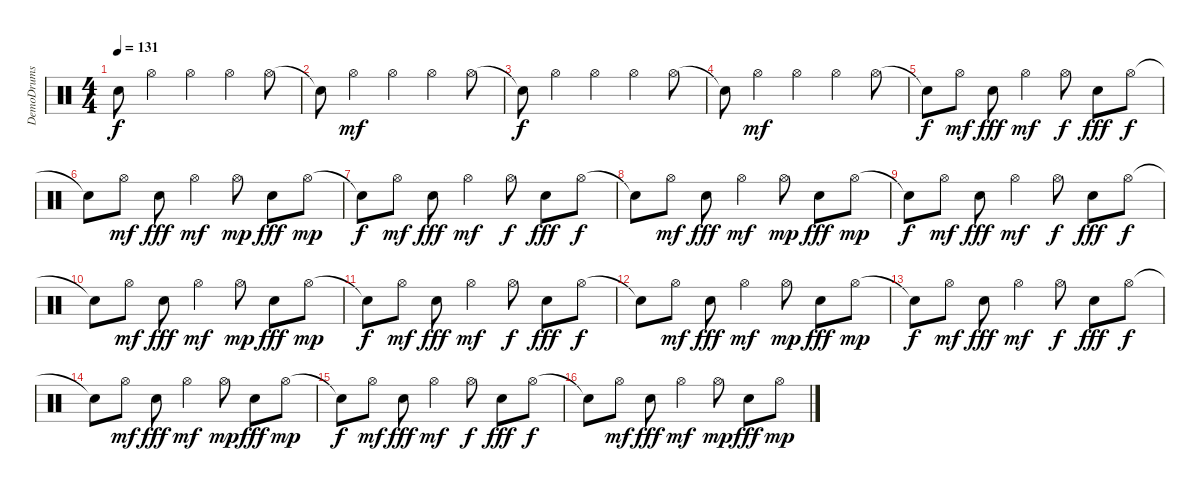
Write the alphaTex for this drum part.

\track ("DemoDrums" "DemoDrums") {instrument percussion}
\staff {score}
\articulation defaults
\ts (4 4)
\tempo 131
\clef neutral
\ks c "Snare (hit)"{t}.8{dy f} "Hi-Hat (open)".4 "Hi-Hat (open)".4 "Hi-Hat (open)".4 "Hi-Hat (open)".8
|
"Snare (hit)"{t}.8 "Hi-Hat (open)".4{dy mf} "Hi-Hat (open)".4 "Hi-Hat (open)".4 "Hi-Hat (open)".8 |
"Snare (hit)"{t}.8{dy f} "Hi-Hat (open)".4 "Hi-Hat (open)".4 "Hi-Hat (open)".4 "Hi-Hat (open)".8 |
"Snare (hit)"{t}.8 "Hi-Hat (open)".4{dy mf} "Hi-Hat (open)".4 "Hi-Hat (open)".4 "Hi-Hat (open)".8 |
"Snare (hit)"{t}.8{dy f} "Hi-Hat (open)".8{dy mf} "Electric Snare (hit)".8{dy fff} "Hi-Hat (open)".4{dy mf} "Hi-Hat (open)".8{dy f} "Electric Snare (hit)".8{dy fff} "Hi-Hat (open)".8{dy f} |
"Snare (hit)"{t}.8 "Hi-Hat (open)".8{dy mf} "Electric Snare (hit)".8{dy fff} "Hi-Hat (open)".4{dy mf} "Hi-Hat (open)".8{dy mp} "Electric Snare (hit)".8{dy fff} "Hi-Hat (open)".8{dy mp} |
"Snare (hit)"{t}.8{dy f} "Hi-Hat (open)".8{dy mf} "Electric Snare (hit)".8{dy fff} "Hi-Hat (open)".4{dy mf} "Hi-Hat (open)".8{dy f} "Electric Snare (hit)".8{dy fff} "Hi-Hat (open)".8{dy f} |
"Snare (hit)"{t}.8 "Hi-Hat (open)".8{dy mf} "Electric Snare (hit)".8{dy fff} "Hi-Hat (open)".4{dy mf} "Hi-Hat (open)".8{dy mp} "Electric Snare (hit)".8{dy fff} "Hi-Hat (open)".8{dy mp} |
"Snare (hit)"{t}.8{dy f} "Hi-Hat (open)".8{dy mf} "Electric Snare (hit)".8{dy fff} "Hi-Hat (open)".4{dy mf} "Hi-Hat (open)".8{dy f} "Electric Snare (hit)".8{dy fff} "Hi-Hat (open)".8{dy f} |
"Snare (hit)"{t}.8 "Hi-Hat (open)".8{dy mf} "Electric Snare (hit)".8{dy fff} "Hi-Hat (open)".4{dy mf} "Hi-Hat (open)".8{dy mp} "Electric Snare (hit)".8{dy fff} "Hi-Hat (open)".8{dy mp} |
"Snare (hit)"{t}.8{dy f} "Hi-Hat (open)".8{dy mf} "Electric Snare (hit)".8{dy fff} "Hi-Hat (open)".4{dy mf} "Hi-Hat (open)".8{dy f} "Electric Snare (hit)".8{dy fff} "Hi-Hat (open)".8{dy f} |
"Snare (hit)"{t}.8 "Hi-Hat (open)".8{dy mf} "Electric Snare (hit)".8{dy fff} "Hi-Hat (open)".4{dy mf} "Hi-Hat (open)".8{dy mp} "Electric Snare (hit)".8{dy fff} "Hi-Hat (open)".8{dy mp} |
"Snare (hit)"{t}.8{dy f} "Hi-Hat (open)".8{dy mf} "Electric Snare (hit)".8{dy fff} "Hi-Hat (open)".4{dy mf} "Hi-Hat (open)".8{dy f} "Electric Snare (hit)".8{dy fff} "Hi-Hat (open)".8{dy f} |
"Snare (hit)"{t}.8 "Hi-Hat (open)".8{dy mf} "Electric Snare (hit)".8{dy fff} "Hi-Hat (open)".4{dy mf} "Hi-Hat (open)".8{dy mp} "Electric Snare (hit)".8{dy fff} "Hi-Hat (open)".8{dy mp} |
"Snare (hit)"{t}.8{dy f} "Hi-Hat (open)".8{dy mf} "Electric Snare (hit)".8{dy fff} "Hi-Hat (open)".4{dy mf} "Hi-Hat (open)".8{dy f} "Electric Snare (hit)".8{dy fff} "Hi-Hat (open)".8{dy f} |
"Snare (hit)"{t}.8 "Hi-Hat (open)".8{dy mf} "Electric Snare (hit)".8{dy fff} "Hi-Hat (open)".4{dy mf} "Hi-Hat (open)".8{dy mp} "Electric Snare (hit)".8{dy fff} "Hi-Hat (open)".8{dy mp}
